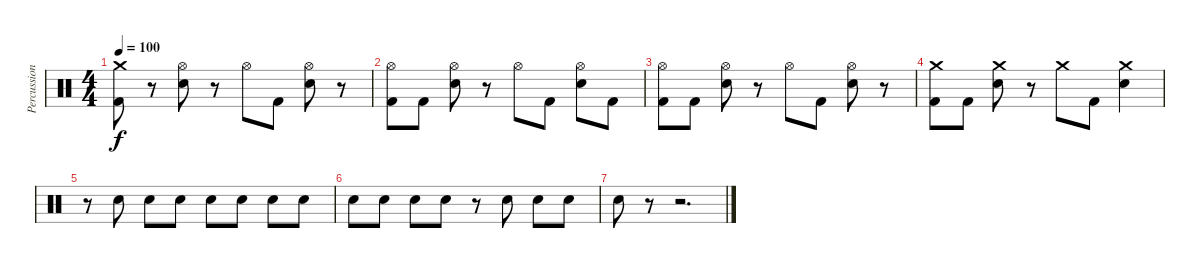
\track ("Percussion" "Percussion") {instrument percussion}
\staff {score}
\articulation defaults
\ts (4 4)
\tempo 100
\clef neutral
\ks c
("Crash medium (hit)" "Kick (hit) 2").8{dy f} r.8 ("Hi-Hat (open)" "Snare (hit) 2").8 r.8 "Hi-Hat (open)".8 "Kick (hit) 2".8 ("Hi-Hat (open)" "Snare (hit) 2").8 r.8 |
("Hi-Hat (open)" "Kick (hit) 2").8 "Kick (hit) 2".8 ("Hi-Hat (open)" "Snare (hit) 2").8 r.8 "Hi-Hat (open)".8 "Kick (hit) 2".8 ("Hi-Hat (open)" "Snare (hit) 2").8 "Kick (hit) 2".8 |
("Hi-Hat (open)" "Kick (hit) 2").8 "Kick (hit) 2".8 ("Hi-Hat (open)" "Snare (hit) 2").8 r.8 "Hi-Hat (open)".8 "Kick (hit) 2".8 ("Hi-Hat (open)" "Snare (hit) 2").8 r.8 |
("Crash medium (hit)" "Kick (hit) 2").8 "Kick (hit) 2".8 ("Crash medium (hit)" "Snare (hit) 2").8 r.8 "Crash medium (hit)".8 "Kick (hit) 2".8 ("Crash medium (hit)" "Snare (hit) 2").4 |
r.8 "Snare (hit) 2".8 "Snare (hit) 2".8 "Snare (hit) 2".8 "Snare (hit) 2".8 "Snare (hit) 2".8 "Snare (hit) 2".8 "Snare (hit) 2".8 |
"Snare (hit) 2".8 "Snare (hit) 2".8 "Snare (hit) 2".8 "Snare (hit) 2".8 r.8 "Snare (hit) 2".8 "Snare (hit) 2".8 "Snare (hit) 2".8 |
"Snare (hit) 2".8 r.8 r.2{d}
